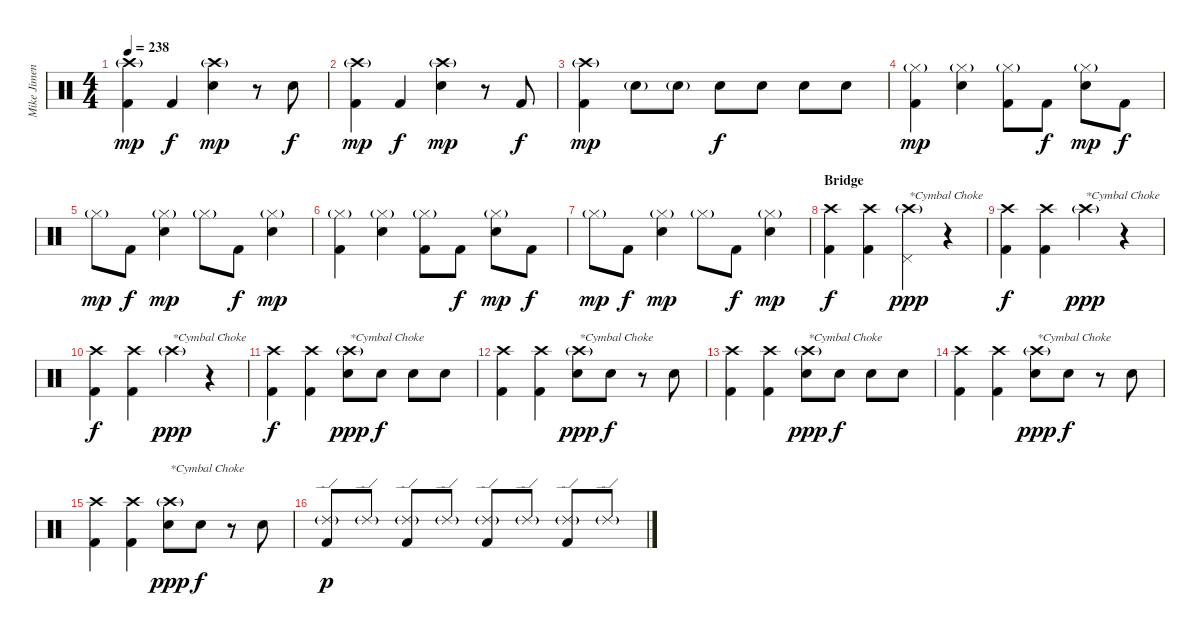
\track ("Mike Jimenez" "Mike Jimen") {instrument percussion}
\staff {score}
\articulation defaults
\ts (4 4)
\tempo 238
\clef neutral
\ks c
("Crash high (hit)"{g} "Kick (hit) 2").4{dy mp} "Kick (hit) 2".4{dy f} ("Crash high (hit)"{g} "Electric Snare (hit)").4{dy mp} r.8 "Electric Snare (hit)".8{dy f} |
("Crash high (hit)"{g} "Kick (hit) 2").4{dy mp} "Kick (hit) 2".4{dy f} ("Crash high (hit)"{g} "Electric Snare (hit)").4{dy mp} r.8 "Kick (hit) 2".8{dy f} |
("Crash high (hit)"{g} "Kick (hit) 2").4{dy mp} "Electric Snare (hit)"{g}.8 "Electric Snare (hit)"{g}.8 "Electric Snare (hit)".8{dy f} "Electric Snare (hit)".8 "Electric Snare (hit)".8 "Electric Snare (hit)".8 |
("Hi-Hat (closed)"{g} "Kick (hit) 2").4{dy mp} ("Hi-Hat (closed)"{g} "Electric Snare (hit)").4 ("Hi-Hat (closed)"{g} "Kick (hit) 2").8 "Kick (hit) 2".8{dy f} ("Hi-Hat (closed)"{g} "Electric Snare (hit)").8{dy mp} "Kick (hit) 2".8{dy f} |
"Hi-Hat (closed)"{g}.8{dy mp} "Kick (hit) 2".8{dy f} ("Hi-Hat (closed)"{g} "Electric Snare (hit)").4{dy mp} "Hi-Hat (closed)"{g}.8 "Kick (hit) 2".8{dy f} ("Hi-Hat (closed)"{g} "Electric Snare (hit)").4{dy mp} |
("Hi-Hat (closed)"{g} "Kick (hit) 2").4 ("Hi-Hat (closed)"{g} "Electric Snare (hit)").4 ("Hi-Hat (closed)"{g} "Kick (hit) 2").8 "Kick (hit) 2".8{dy f} ("Hi-Hat (closed)"{g} "Electric Snare (hit)").8{dy mp} "Kick (hit) 2".8{dy f} |
"Hi-Hat (closed)"{g}.8{dy mp} "Kick (hit) 2".8{dy f} ("Hi-Hat (closed)"{g} "Electric Snare (hit)").4{dy mp} "Hi-Hat (closed)"{g}.8 "Kick (hit) 2".8{dy f} ("Hi-Hat (closed)"{g} "Electric Snare (hit)").4{dy mp} |
\section ("" "Bridge")
("Crash high (hit)" "Kick (hit) 2").4{dy f} ("Crash high (hit)" "Kick (hit) 2").4 ("Crash high (hit)"{g} "Pedal Hi-Hat (hit)").4{txt "*Cymbal Choke" dy ppp} r.4 |
("Crash high (hit)" "Kick (hit) 2").4{dy f} ("Crash high (hit)" "Kick (hit) 2").4 "Crash high (hit)"{g}.4{txt "*Cymbal Choke" dy ppp} r.4 |
("Crash high (hit)" "Kick (hit) 2").4{dy f} ("Crash high (hit)" "Kick (hit) 2").4 "Crash high (hit)"{g}.4{txt "*Cymbal Choke" dy ppp} r.4 |
("Crash high (hit)" "Kick (hit) 2").4{dy f} ("Crash high (hit)" "Kick (hit) 2").4 ("Crash high (hit)"{g} "Electric Snare (hit)").8{txt "*Cymbal Choke" dy ppp} "Electric Snare (hit)".8{dy f} "Electric Snare (hit)".8 "Electric Snare (hit)".8 |
("Crash high (hit)" "Kick (hit) 2").4 ("Crash high (hit)" "Kick (hit) 2").4 ("Crash high (hit)"{g} "Electric Snare (hit)").8{txt "*Cymbal Choke" dy ppp} "Electric Snare (hit)".8{dy f} r.8 "Electric Snare (hit)".8 |
("Crash high (hit)" "Kick (hit) 2").4 ("Crash high (hit)" "Kick (hit) 2").4 ("Crash high (hit)"{g} "Electric Snare (hit)").8{txt "*Cymbal Choke" dy ppp} "Electric Snare (hit)".8{dy f} "Electric Snare (hit)".8 "Electric Snare (hit)".8 |
("Crash high (hit)" "Kick (hit) 2").4 ("Crash high (hit)" "Kick (hit) 2").4 ("Crash high (hit)"{g} "Electric Snare (hit)").8{txt "*Cymbal Choke" dy ppp} "Electric Snare (hit)".8{dy f} r.8 "Electric Snare (hit)".8 |
("Crash high (hit)" "Kick (hit) 2").4 ("Crash high (hit)" "Kick (hit) 2").4 ("Crash high (hit)"{g} "Electric Snare (hit)").8{txt "*Cymbal Choke" dy ppp} "Electric Snare (hit)".8{dy f} r.8 "Electric Snare (hit)".8 |
("Ride (edge) 2"{g} "Kick (hit) 2").8{dy p} "Ride (edge) 2"{g}.8 ("Ride (edge) 2"{g} "Kick (hit) 2").8 "Ride (edge) 2"{g}.8 ("Ride (edge) 2"{g} "Kick (hit) 2").8 "Ride (edge) 2"{g}.8 ("Ride (edge) 2"{g} "Kick (hit) 2").8 "Ride (edge) 2"{g}.8
